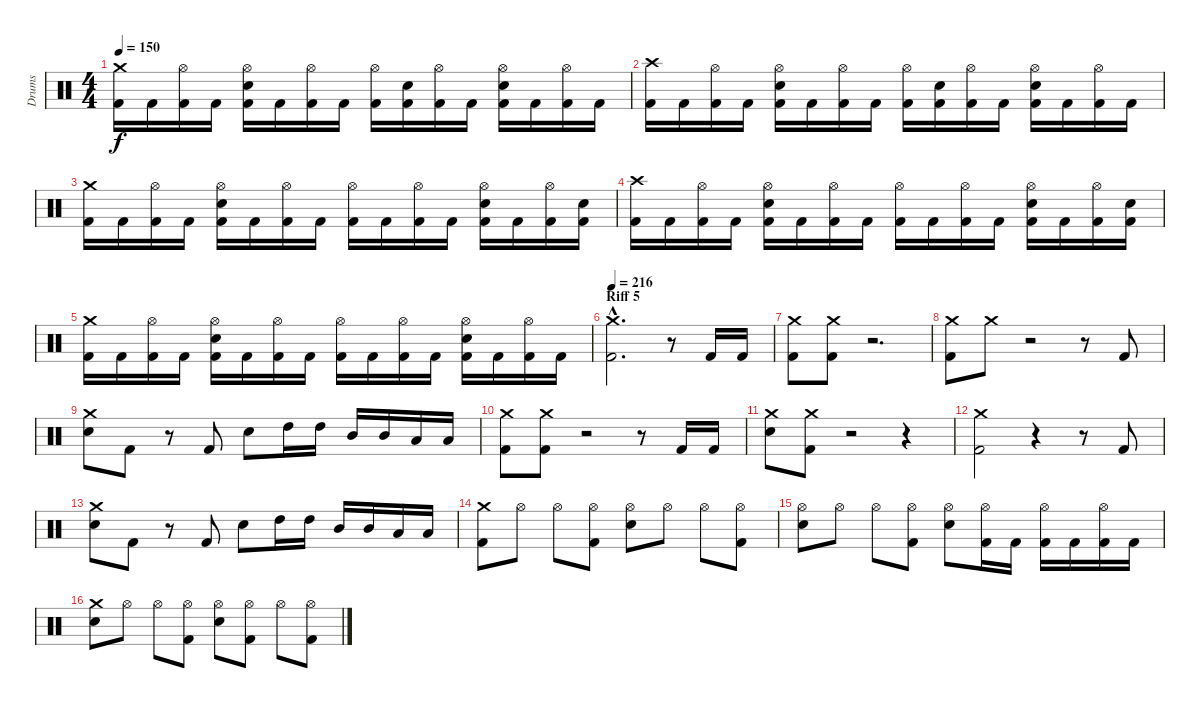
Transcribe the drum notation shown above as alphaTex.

\track ("Drums" "Drums") {instrument percussion}
\staff {score}
\articulation defaults
\ts (4 4)
\tempo 150
\clef neutral
\ks c
("Crash medium (hit)" "Kick (hit) 2").16{dy f} "Kick (hit) 2".16 ("Hi-Hat (open)" "Kick (hit) 2").16 "Kick (hit) 2".16 ("Hi-Hat (open)" "Electric Snare (hit)" "Kick (hit) 2").16 "Kick (hit) 2".16 ("Hi-Hat (open)" "Kick (hit) 2").16 "Kick (hit) 2".16 ("Hi-Hat (open)" "Kick (hit) 2").16 ("Electric Snare (hit)" "Kick (hit) 2").16 ("Hi-Hat (open)" "Kick (hit) 2").16 "Kick (hit) 2".16 ("Hi-Hat (open)" "Electric Snare (hit)" "Kick (hit) 2").16 "Kick (hit) 2".16 ("Hi-Hat (open)" "Kick (hit) 2").16 "Kick (hit) 2".16 |
("Crash high (hit)" "Kick (hit) 2").16 "Kick (hit) 2".16 ("Hi-Hat (open)" "Kick (hit) 2").16 "Kick (hit) 2".16 ("Hi-Hat (open)" "Electric Snare (hit)" "Kick (hit) 2").16 "Kick (hit) 2".16 ("Hi-Hat (open)" "Kick (hit) 2").16 "Kick (hit) 2".16 ("Hi-Hat (open)" "Kick (hit) 2").16 ("Electric Snare (hit)" "Kick (hit) 2").16 ("Hi-Hat (open)" "Kick (hit) 2").16 "Kick (hit) 2".16 ("Hi-Hat (open)" "Electric Snare (hit)" "Kick (hit) 2").16 "Kick (hit) 2".16 ("Hi-Hat (open)" "Kick (hit) 2").16 "Kick (hit) 2".16 |
("Crash medium (hit)" "Kick (hit) 2").16 "Kick (hit) 2".16 ("Hi-Hat (open)" "Kick (hit) 2").16 "Kick (hit) 2".16 ("Hi-Hat (open)" "Electric Snare (hit)" "Kick (hit) 2").16 "Kick (hit) 2".16 ("Hi-Hat (open)" "Kick (hit) 2").16 "Kick (hit) 2".16 ("Hi-Hat (open)" "Kick (hit) 2").16 "Kick (hit) 2".16 ("Hi-Hat (open)" "Kick (hit) 2").16 "Kick (hit) 2".16 ("Hi-Hat (open)" "Electric Snare (hit)" "Kick (hit) 2").16 "Kick (hit) 2".16 ("Hi-Hat (open)" "Kick (hit) 2").16 ("Electric Snare (hit)" "Kick (hit) 2").16 |
("Crash high (hit)" "Kick (hit) 2").16 "Kick (hit) 2".16 ("Hi-Hat (open)" "Kick (hit) 2").16 "Kick (hit) 2".16 ("Hi-Hat (open)" "Electric Snare (hit)" "Kick (hit) 2").16 "Kick (hit) 2".16 ("Hi-Hat (open)" "Kick (hit) 2").16 "Kick (hit) 2".16 ("Hi-Hat (open)" "Kick (hit) 2").16 "Kick (hit) 2".16 ("Hi-Hat (open)" "Kick (hit) 2").16 "Kick (hit) 2".16 ("Hi-Hat (open)" "Electric Snare (hit)" "Kick (hit) 2").16 "Kick (hit) 2".16 ("Hi-Hat (open)" "Kick (hit) 2").16 ("Electric Snare (hit)" "Kick (hit) 2").16 |
("Crash medium (hit)" "Kick (hit) 2").16 "Kick (hit) 2".16 ("Hi-Hat (open)" "Kick (hit) 2").16 "Kick (hit) 2".16 ("Hi-Hat (open)" "Electric Snare (hit)" "Kick (hit) 2").16 "Kick (hit) 2".16 ("Hi-Hat (open)" "Kick (hit) 2").16 "Kick (hit) 2".16 ("Hi-Hat (open)" "Kick (hit) 2").16 "Kick (hit) 2".16 ("Hi-Hat (open)" "Kick (hit) 2").16 "Kick (hit) 2".16 ("Hi-Hat (open)" "Electric Snare (hit)" "Kick (hit) 2").16 "Kick (hit) 2".16 ("Hi-Hat (open)" "Kick (hit) 2").16 "Kick (hit) 2".16 |
\section ("" "Riff 5")
\tempo 216
("Crash medium (hit)"{hac} "Kick (hit) 2"{hac}).2{d} r.8 "Kick (hit) 2".16 "Kick (hit) 2".16 |
("Crash medium (hit)" "Kick (hit) 2").8 ("Crash medium (hit)" "Kick (hit) 2").8 r.2{d} |
("Crash medium (hit)" "Kick (hit) 2").8 "Crash medium (hit)".8 r.2 r.8 "Kick (hit) 2".8 |
("Crash medium (hit)" "Electric Snare (hit)").8 "Kick (hit) 2".8 r.8 "Kick (hit) 2".8 "Electric Snare (hit)".8 "High Tom (hit)".16 "High Tom (hit)".16 "Mid Tom (hit)".16 "Mid Tom (hit)".16 "Low Tom (hit)".16 "Low Tom (hit)".16 |
("Crash medium (hit)" "Kick (hit) 2").8 ("Crash medium (hit)" "Kick (hit) 2").8 r.2 r.8 "Kick (hit) 2".16 "Kick (hit) 2".16 |
("Crash medium (hit)" "Electric Snare (hit)").8 ("Crash medium (hit)" "Kick (hit) 2").8 r.2 r.4 |
("Crash medium (hit)" "Kick (hit) 2").2 r.4 r.8 "Kick (hit) 2".8 |
("Crash medium (hit)" "Electric Snare (hit)").8 "Kick (hit) 2".8 r.8 "Kick (hit) 2".8 "Electric Snare (hit)".8 "High Tom (hit)".16 "High Tom (hit)".16 "Mid Tom (hit)".16 "Mid Tom (hit)".16 "Low Tom (hit)".16 "Low Tom (hit)".16 |
("Crash medium (hit)" "Kick (hit) 2").8 "Hi-Hat (open)".8 "Hi-Hat (open)".8 ("Hi-Hat (open)" "Kick (hit) 2").8 ("Hi-Hat (open)" "Electric Snare (hit)").8 "Hi-Hat (open)".8 "Hi-Hat (open)".8 ("Hi-Hat (open)" "Kick (hit) 2").8 |
("Hi-Hat (open)" "Electric Snare (hit)").8 "Hi-Hat (open)".8 "Hi-Hat (open)".8 ("Hi-Hat (open)" "Kick (hit) 2").8 ("Hi-Hat (open)" "Electric Snare (hit)").8 ("Hi-Hat (open)" "Kick (hit) 2").16 "Kick (hit) 2".16 ("Hi-Hat (open)" "Kick (hit) 2").16 "Kick (hit) 2".16 ("Hi-Hat (open)" "Kick (hit) 2").16 "Kick (hit) 2".16 |
("Crash medium (hit)" "Electric Snare (hit)").8 "Hi-Hat (open)".8 "Hi-Hat (open)".8 ("Hi-Hat (open)" "Kick (hit) 2").8 ("Hi-Hat (open)" "Electric Snare (hit)").8 ("Hi-Hat (open)" "Kick (hit) 2").8 "Hi-Hat (open)".8 ("Hi-Hat (open)" "Kick (hit) 2").8
